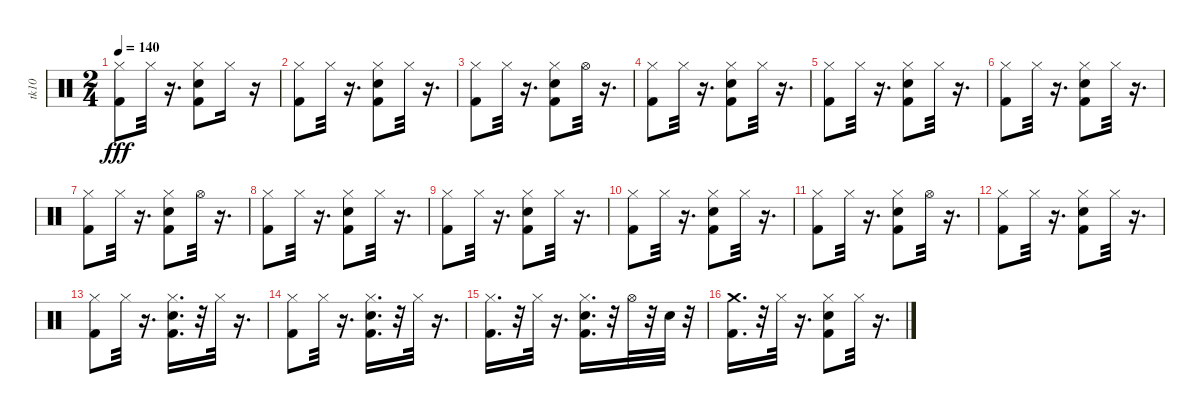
\track ("tk10" "tk10") {instrument percussion}
\staff {score}
\articulation defaults
\ts (2 4)
\tempo 140
\clef neutral
\ks c
("Kick (hit) 2" "Hi-Hat (closed)").8{dy fff} "Hi-Hat (closed)".32 r.16{d} ("Hi-Hat (closed)" "Snare (hit) 2" "Kick (hit) 2").8 "Hi-Hat (closed)".16 r.16 |
("Kick (hit) 2" "Hi-Hat (closed)").8 "Hi-Hat (closed)".32 r.16{d} ("Snare (hit) 2" "Kick (hit) 2" "Hi-Hat (closed)").8 "Hi-Hat (closed)".32 r.16{d} |
("Kick (hit) 2" "Hi-Hat (closed)").8 "Hi-Hat (closed)".32 r.16{d} ("Kick (hit) 2" "Snare (hit) 2" "Hi-Hat (closed)").8 "Hi-Hat (open)".32 r.16{d} |
("Kick (hit) 2" "Hi-Hat (closed)").8 "Hi-Hat (closed)".32 r.16{d} ("Snare (hit) 2" "Kick (hit) 2" "Hi-Hat (closed)").8 "Hi-Hat (closed)".32 r.16{d} |
("Kick (hit) 2" "Hi-Hat (closed)").8 "Hi-Hat (closed)".32 r.16{d} ("Snare (hit) 2" "Kick (hit) 2" "Hi-Hat (closed)").8 "Hi-Hat (closed)".32 r.16{d} |
("Kick (hit) 2" "Hi-Hat (closed)").8 "Hi-Hat (closed)".32 r.16{d} ("Snare (hit) 2" "Kick (hit) 2" "Hi-Hat (closed)").8 "Hi-Hat (closed)".32 r.16{d} |
("Kick (hit) 2" "Hi-Hat (closed)").8 "Hi-Hat (closed)".32 r.16{d} ("Snare (hit) 2" "Kick (hit) 2" "Hi-Hat (closed)").8 "Hi-Hat (open)".32 r.16{d} |
("Kick (hit) 2" "Hi-Hat (closed)").8 "Hi-Hat (closed)".32 r.16{d} ("Snare (hit) 2" "Kick (hit) 2" "Hi-Hat (closed)").8 "Hi-Hat (closed)".32 r.16{d} |
("Kick (hit) 2" "Hi-Hat (closed)").8 "Hi-Hat (closed)".32 r.16{d} ("Snare (hit) 2" "Kick (hit) 2" "Hi-Hat (closed)").8 "Hi-Hat (closed)".32 r.16{d} |
("Kick (hit) 2" "Hi-Hat (closed)").8 "Hi-Hat (closed)".32 r.16{d} ("Kick (hit) 2" "Hi-Hat (closed)" "Snare (hit) 2").8 "Hi-Hat (closed)".32 r.16{d} |
("Kick (hit) 2" "Hi-Hat (closed)").8 "Hi-Hat (closed)".32 r.16{d} ("Snare (hit) 2" "Kick (hit) 2" "Hi-Hat (closed)").8 "Hi-Hat (open)".32 r.16{d} |
("Kick (hit) 2" "Hi-Hat (closed)").8 "Hi-Hat (closed)".32 r.16{d} ("Snare (hit) 2" "Kick (hit) 2" "Hi-Hat (closed)").8 "Hi-Hat (closed)".32 r.16{d} |
("Kick (hit) 2" "Hi-Hat (closed)").8 "Hi-Hat (closed)".32 r.16{d} ("Snare (hit) 2" "Kick (hit) 2" "Hi-Hat (closed)").16{d} r.32 "Hi-Hat (closed)".32 r.16{d} |
("Kick (hit) 2" "Hi-Hat (closed)").8 "Hi-Hat (closed)".32 r.16{d} ("Snare (hit) 2" "Kick (hit) 2" "Hi-Hat (closed)").16{d} r.32 "Hi-Hat (closed)".32 r.16{d} |
("Kick (hit) 2" "Hi-Hat (closed)").16{d} r.32 "Hi-Hat (closed)".32 r.16{d} ("Snare (hit) 2" "Kick (hit) 2" "Hi-Hat (closed)").16{d} r.32 "Hi-Hat (open)".32 r.32 "Snare (hit) 2".32 r.32 |
("Kick (hit) 2" "Crash medium (hit)").16{d} r.32 "Hi-Hat (closed)".32 r.16{d} ("Hi-Hat (closed)" "Kick (hit) 2" "Snare (hit) 2").8 "Hi-Hat (closed)".32 r.16{d}
